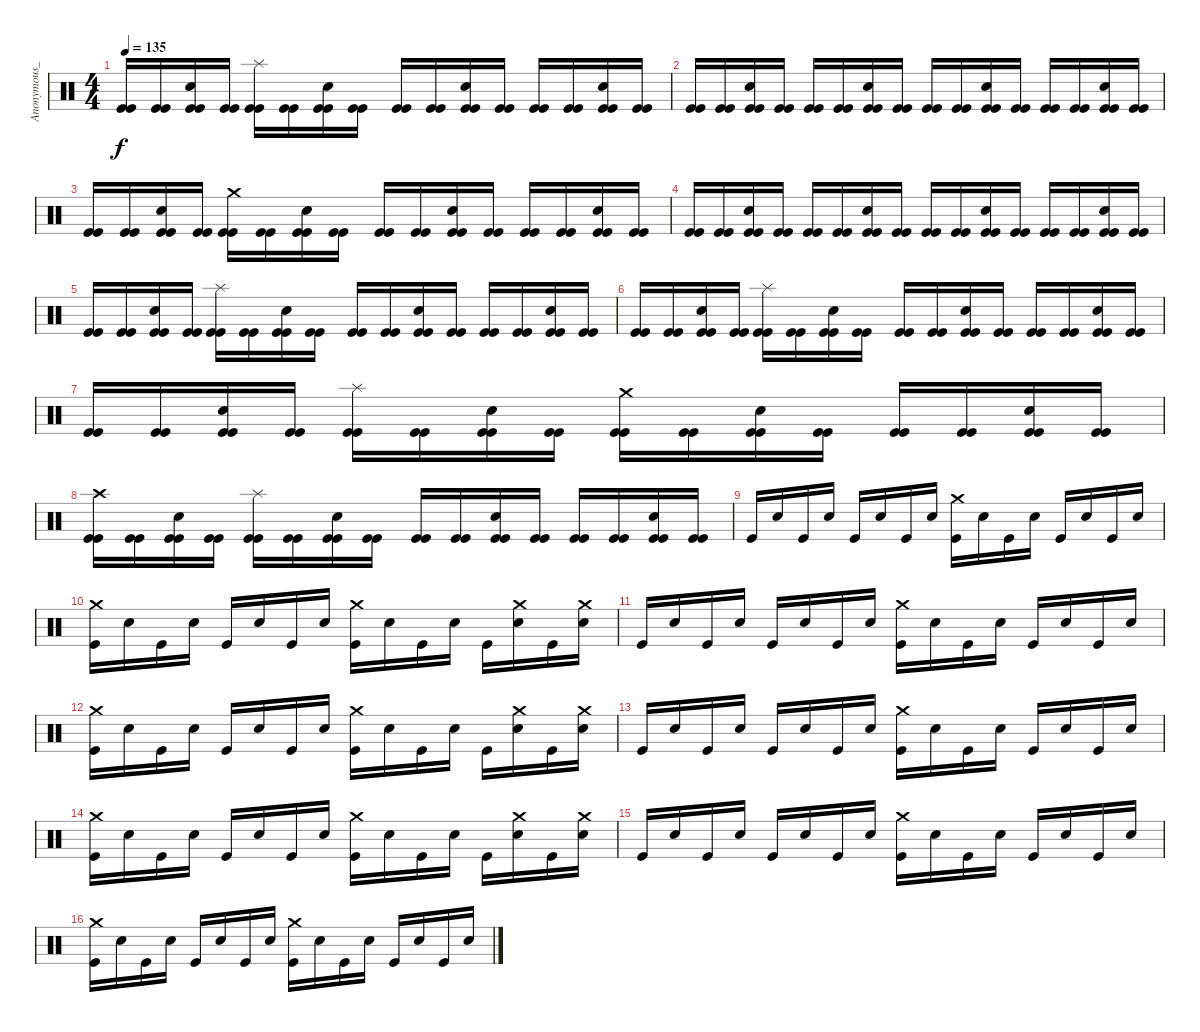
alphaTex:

\track ("Anonymous_Drums" "Anonymous_") {instrument percussion}
\staff {score}
\articulation defaults
\ts (4 4)
\tempo 135
\clef neutral
\ks c
("Kick (hit)" "Kick (hit)").16{dy f} ("Kick (hit)" "Kick (hit)").16 ("Snare (hit) 2" "Kick (hit)" "Kick (hit)").16 ("Kick (hit)" "Kick (hit)").16 ("Splash (hit)" "Kick (hit)" "Kick (hit)").16 ("Kick (hit)" "Kick (hit)").16 ("Snare (hit) 2" "Kick (hit)" "Kick (hit)").16 ("Kick (hit)" "Kick (hit)").16 ("Kick (hit)" "Kick (hit)").16 ("Kick (hit)" "Kick (hit)").16 ("Snare (hit) 2" "Kick (hit)" "Kick (hit)").16 ("Kick (hit)" "Kick (hit)").16 ("Kick (hit)" "Kick (hit)").16 ("Kick (hit)" "Kick (hit)").16 ("Snare (hit) 2" "Kick (hit)" "Kick (hit)").16 ("Kick (hit)" "Kick (hit)").16 |
("Kick (hit)" "Kick (hit)").16 ("Kick (hit)" "Kick (hit)").16 ("Snare (hit) 2" "Kick (hit)" "Kick (hit)").16 ("Kick (hit)" "Kick (hit)").16 ("Kick (hit)" "Kick (hit)").16 ("Kick (hit)" "Kick (hit)").16 ("Snare (hit) 2" "Kick (hit)" "Kick (hit)").16 ("Kick (hit)" "Kick (hit)").16 ("Kick (hit)" "Kick (hit)").16 ("Kick (hit)" "Kick (hit)").16 ("Snare (hit) 2" "Kick (hit)" "Kick (hit)").16 ("Kick (hit)" "Kick (hit)").16 ("Kick (hit)" "Kick (hit)").16 ("Kick (hit)" "Kick (hit)").16 ("Snare (hit) 2" "Kick (hit)" "Kick (hit)").16 ("Kick (hit)" "Kick (hit)").16 |
("Kick (hit)" "Kick (hit)").16 ("Kick (hit)" "Kick (hit)").16 ("Snare (hit) 2" "Kick (hit)" "Kick (hit)").16 ("Kick (hit)" "Kick (hit)").16 ("Crash medium (hit)" "Kick (hit)" "Kick (hit)").16 ("Kick (hit)" "Kick (hit)").16 ("Snare (hit) 2" "Kick (hit)" "Kick (hit)").16 ("Kick (hit)" "Kick (hit)").16 ("Kick (hit)" "Kick (hit)").16 ("Kick (hit)" "Kick (hit)").16 ("Snare (hit) 2" "Kick (hit)" "Kick (hit)").16 ("Kick (hit)" "Kick (hit)").16 ("Kick (hit)" "Kick (hit)").16 ("Kick (hit)" "Kick (hit)").16 ("Snare (hit) 2" "Kick (hit)" "Kick (hit)").16 ("Kick (hit)" "Kick (hit)").16 |
("Kick (hit)" "Kick (hit)").16 ("Kick (hit)" "Kick (hit)").16 ("Snare (hit) 2" "Kick (hit)" "Kick (hit)").16 ("Kick (hit)" "Kick (hit)").16 ("Kick (hit)" "Kick (hit)").16 ("Kick (hit)" "Kick (hit)").16 ("Snare (hit) 2" "Kick (hit)" "Kick (hit)").16 ("Kick (hit)" "Kick (hit)").16 ("Kick (hit)" "Kick (hit)").16 ("Kick (hit)" "Kick (hit)").16 ("Snare (hit) 2" "Kick (hit)" "Kick (hit)").16 ("Kick (hit)" "Kick (hit)").16 ("Kick (hit)" "Kick (hit)").16 ("Kick (hit)" "Kick (hit)").16 ("Snare (hit) 2" "Kick (hit)" "Kick (hit)").16 ("Kick (hit)" "Kick (hit)").16 |
("Kick (hit)" "Kick (hit)").16 ("Kick (hit)" "Kick (hit)").16 ("Snare (hit) 2" "Kick (hit)" "Kick (hit)").16 ("Kick (hit)" "Kick (hit)").16 ("Splash (hit)" "Kick (hit)" "Kick (hit)").16 ("Kick (hit)" "Kick (hit)").16 ("Snare (hit) 2" "Kick (hit)" "Kick (hit)").16 ("Kick (hit)" "Kick (hit)").16 ("Kick (hit)" "Kick (hit)").16 ("Kick (hit)" "Kick (hit)").16 ("Snare (hit) 2" "Kick (hit)" "Kick (hit)").16 ("Kick (hit)" "Kick (hit)").16 ("Kick (hit)" "Kick (hit)").16 ("Kick (hit)" "Kick (hit)").16 ("Snare (hit) 2" "Kick (hit)" "Kick (hit)").16 ("Kick (hit)" "Kick (hit)").16 |
("Kick (hit)" "Kick (hit)").16 ("Kick (hit)" "Kick (hit)").16 ("Snare (hit) 2" "Kick (hit)" "Kick (hit)").16 ("Kick (hit)" "Kick (hit)").16 ("Splash (hit)" "Kick (hit)" "Kick (hit)").16 ("Kick (hit)" "Kick (hit)").16 ("Snare (hit) 2" "Kick (hit)" "Kick (hit)").16 ("Kick (hit)" "Kick (hit)").16 ("Kick (hit)" "Kick (hit)").16 ("Kick (hit)" "Kick (hit)").16 ("Snare (hit) 2" "Kick (hit)" "Kick (hit)").16 ("Kick (hit)" "Kick (hit)").16 ("Kick (hit)" "Kick (hit)").16 ("Kick (hit)" "Kick (hit)").16 ("Snare (hit) 2" "Kick (hit)" "Kick (hit)").16 ("Kick (hit)" "Kick (hit)").16 |
("Kick (hit)" "Kick (hit)").16 ("Kick (hit)" "Kick (hit)").16 ("Snare (hit) 2" "Kick (hit)" "Kick (hit)").16 ("Kick (hit)" "Kick (hit)").16 ("Splash (hit)" "Kick (hit)" "Kick (hit)").16 ("Kick (hit)" "Kick (hit)").16 ("Snare (hit) 2" "Kick (hit)" "Kick (hit)").16 ("Kick (hit)" "Kick (hit)").16 ("Crash medium (hit)" "Kick (hit)" "Kick (hit)").16 ("Kick (hit)" "Kick (hit)").16 ("Snare (hit) 2" "Kick (hit)" "Kick (hit)").16 ("Kick (hit)" "Kick (hit)").16 ("Kick (hit)" "Kick (hit)").16 ("Kick (hit)" "Kick (hit)").16 ("Snare (hit) 2" "Kick (hit)" "Kick (hit)").16 ("Kick (hit)" "Kick (hit)").16 |
("Crash high (hit)" "Kick (hit)" "Kick (hit)").16 ("Kick (hit)" "Kick (hit)").16 ("Snare (hit) 2" "Kick (hit)" "Kick (hit)").16 ("Kick (hit)" "Kick (hit)").16 ("Splash (hit)" "Kick (hit)" "Kick (hit)").16 ("Kick (hit)" "Kick (hit)").16 ("Snare (hit) 2" "Kick (hit)" "Kick (hit)").16 ("Kick (hit)" "Kick (hit)").16 ("Kick (hit)" "Kick (hit)").16 ("Kick (hit)" "Kick (hit)").16 ("Snare (hit) 2" "Kick (hit)" "Kick (hit)").16 ("Kick (hit)" "Kick (hit)").16 ("Kick (hit)" "Kick (hit)").16 ("Kick (hit)" "Kick (hit)").16 ("Snare (hit) 2" "Kick (hit)" "Kick (hit)").16 ("Kick (hit)" "Kick (hit)").16 |
"Kick (hit)".16 "Snare (hit) 2".16 "Kick (hit)".16 "Snare (hit) 2".16 "Kick (hit)".16 "Snare (hit) 2".16 "Kick (hit)".16 "Snare (hit) 2".16 ("Crash medium (hit)" "Kick (hit)").16 "Snare (hit) 2".16 "Kick (hit)".16 "Snare (hit) 2".16 "Kick (hit)".16 "Snare (hit) 2".16 "Kick (hit)".16 "Snare (hit) 2".16 |
("Crash medium (hit)" "Kick (hit)").16 "Snare (hit) 2".16 "Kick (hit)".16 "Snare (hit) 2".16 "Kick (hit)".16 "Snare (hit) 2".16 "Kick (hit)".16 "Snare (hit) 2".16 ("Crash medium (hit)" "Kick (hit)").16 "Snare (hit) 2".16 "Kick (hit)".16 "Snare (hit) 2".16 "Kick (hit)".16 ("Crash medium (hit)" "Snare (hit) 2").16 "Kick (hit)".16 ("Crash medium (hit)" "Snare (hit) 2").16 |
"Kick (hit)".16 "Snare (hit) 2".16 "Kick (hit)".16 "Snare (hit) 2".16 "Kick (hit)".16 "Snare (hit) 2".16 "Kick (hit)".16 "Snare (hit) 2".16 ("Crash medium (hit)" "Kick (hit)").16 "Snare (hit) 2".16 "Kick (hit)".16 "Snare (hit) 2".16 "Kick (hit)".16 "Snare (hit) 2".16 "Kick (hit)".16 "Snare (hit) 2".16 |
("Crash medium (hit)" "Kick (hit)").16 "Snare (hit) 2".16 "Kick (hit)".16 "Snare (hit) 2".16 "Kick (hit)".16 "Snare (hit) 2".16 "Kick (hit)".16 "Snare (hit) 2".16 ("Crash medium (hit)" "Kick (hit)").16 "Snare (hit) 2".16 "Kick (hit)".16 "Snare (hit) 2".16 "Kick (hit)".16 ("Crash medium (hit)" "Snare (hit) 2").16 "Kick (hit)".16 ("Crash medium (hit)" "Snare (hit) 2").16 |
"Kick (hit)".16 "Snare (hit) 2".16 "Kick (hit)".16 "Snare (hit) 2".16 "Kick (hit)".16 "Snare (hit) 2".16 "Kick (hit)".16 "Snare (hit) 2".16 ("Crash medium (hit)" "Kick (hit)").16 "Snare (hit) 2".16 "Kick (hit)".16 "Snare (hit) 2".16 "Kick (hit)".16 "Snare (hit) 2".16 "Kick (hit)".16 "Snare (hit) 2".16 |
("Crash medium (hit)" "Kick (hit)").16 "Snare (hit) 2".16 "Kick (hit)".16 "Snare (hit) 2".16 "Kick (hit)".16 "Snare (hit) 2".16 "Kick (hit)".16 "Snare (hit) 2".16 ("Crash medium (hit)" "Kick (hit)").16 "Snare (hit) 2".16 "Kick (hit)".16 "Snare (hit) 2".16 "Kick (hit)".16 ("Crash medium (hit)" "Snare (hit) 2").16 "Kick (hit)".16 ("Crash medium (hit)" "Snare (hit) 2").16 |
"Kick (hit)".16 "Snare (hit) 2".16 "Kick (hit)".16 "Snare (hit) 2".16 "Kick (hit)".16 "Snare (hit) 2".16 "Kick (hit)".16 "Snare (hit) 2".16 ("Crash medium (hit)" "Kick (hit)").16 "Snare (hit) 2".16 "Kick (hit)".16 "Snare (hit) 2".16 "Kick (hit)".16 "Snare (hit) 2".16 "Kick (hit)".16 "Snare (hit) 2".16 |
("Crash medium (hit)" "Kick (hit)").16 "Snare (hit) 2".16 "Kick (hit)".16 "Snare (hit) 2".16 "Kick (hit)".16 "Snare (hit) 2".16 "Kick (hit)".16 "Snare (hit) 2".16 ("Crash medium (hit)" "Kick (hit)").16 "Snare (hit) 2".16 "Kick (hit)".16 "Snare (hit) 2".16 "Kick (hit)".16 "Snare (hit) 2".16 "Kick (hit)".16 "Snare (hit) 2".16
